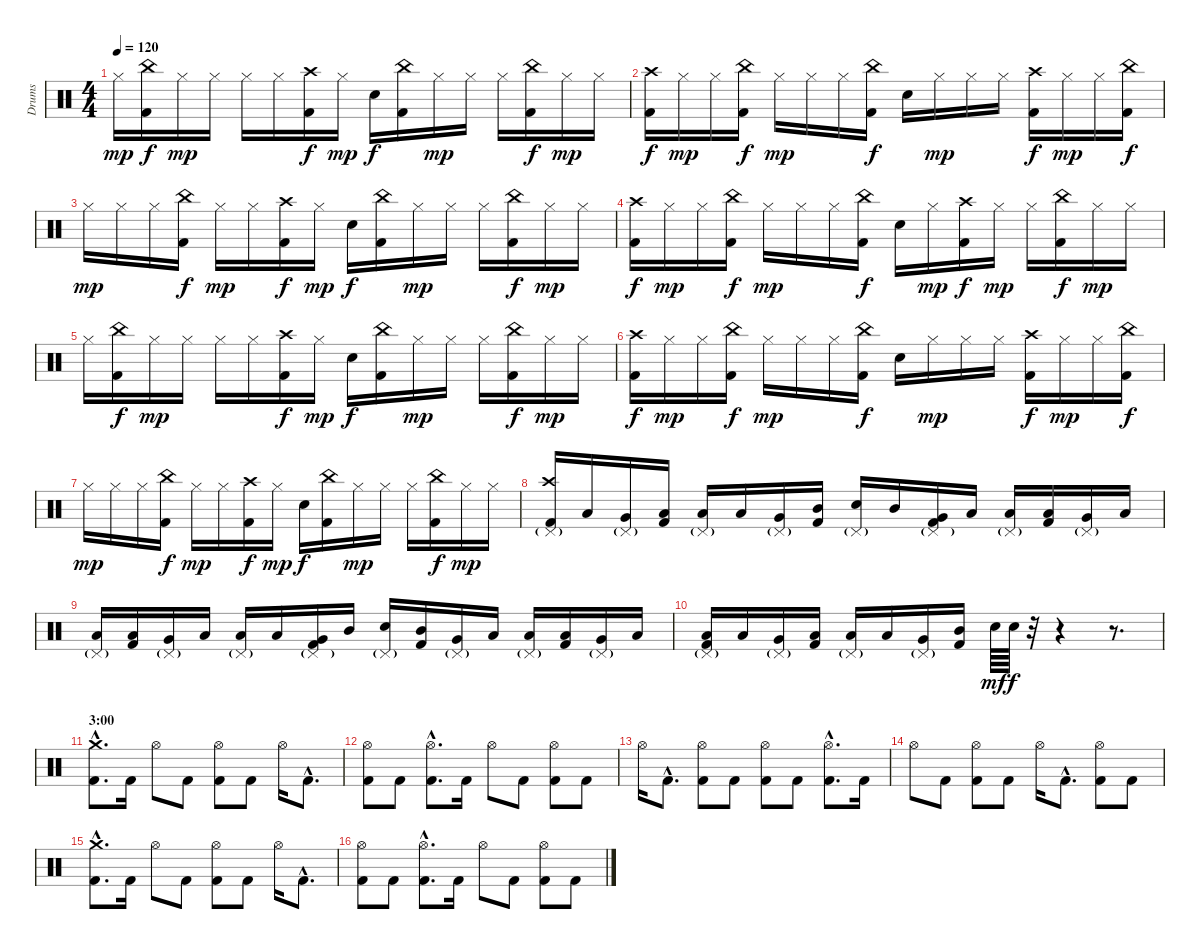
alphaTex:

\track ("Drums" "Drums") {instrument percussion}
\staff {score}
\articulation defaults
\ts (4 4)
\tempo 120
\clef neutral
\ks c "Hi-Hat (closed)".16{dy mp}
("China (hit)" "Kick (hit) 2").16{dy f} "Hi-Hat (closed)".16{dy mp} "Hi-Hat (closed)".16 "Hi-Hat (closed)".16 "Hi-Hat (closed)".16 ("Crash high (hit)" "Kick (hit) 2").16{dy f} "Hi-Hat (closed)".16{dy mp} "Electric Snare (hit)".16{dy f} ("China (hit)" "Kick (hit) 2").16 "Hi-Hat (closed)".16{dy mp} "Hi-Hat (closed)".16 "Hi-Hat (closed)".16 ("China (hit)" "Kick (hit) 2").16{dy f} "Hi-Hat (closed)".16{dy mp} "Hi-Hat (closed)".16 |
("Crash high (hit)" "Kick (hit) 2").16{dy f} "Hi-Hat (closed)".16{dy mp} "Hi-Hat (closed)".16 ("China (hit)" "Kick (hit) 2").16{dy f} "Hi-Hat (closed)".16{dy mp} "Hi-Hat (closed)".16 "Hi-Hat (closed)".16 ("China (hit)" "Kick (hit) 2").16{dy f} "Electric Snare (hit)".16 "Hi-Hat (closed)".16{dy mp} "Hi-Hat (closed)".16 "Hi-Hat (closed)".16 ("Crash high (hit)" "Kick (hit) 2").16{dy f} "Hi-Hat (closed)".16{dy mp} "Hi-Hat (closed)".16 ("China (hit)" "Kick (hit) 2").16{dy f} |
"Hi-Hat (closed)".16{dy mp} "Hi-Hat (closed)".16 "Hi-Hat (closed)".16 ("China (hit)" "Kick (hit) 2").16{dy f} "Hi-Hat (closed)".16{dy mp} "Hi-Hat (closed)".16 ("Crash high (hit)" "Kick (hit) 2").16{dy f} "Hi-Hat (closed)".16{dy mp} "Electric Snare (hit)".16{dy f} ("China (hit)" "Kick (hit) 2").16 "Hi-Hat (closed)".16{dy mp} "Hi-Hat (closed)".16 "Hi-Hat (closed)".16 ("China (hit)" "Kick (hit) 2").16{dy f} "Hi-Hat (closed)".16{dy mp} "Hi-Hat (closed)".16 |
("Crash high (hit)" "Kick (hit) 2").16{dy f} "Hi-Hat (closed)".16{dy mp} "Hi-Hat (closed)".16 ("China (hit)" "Kick (hit) 2").16{dy f} "Hi-Hat (closed)".16{dy mp} "Hi-Hat (closed)".16 "Hi-Hat (closed)".16 ("China (hit)" "Kick (hit) 2").16{dy f} "Electric Snare (hit)".16 "Hi-Hat (closed)".16{dy mp} ("Crash high (hit)" "Kick (hit) 2").16{dy f} "Hi-Hat (closed)".16{dy mp} "Hi-Hat (closed)".16 ("China (hit)" "Kick (hit) 2").16{dy f} "Hi-Hat (closed)".16{dy mp} "Hi-Hat (closed)".16 |
"Hi-Hat (closed)".16 ("China (hit)" "Kick (hit) 2").16{dy f} "Hi-Hat (closed)".16{dy mp} "Hi-Hat (closed)".16 "Hi-Hat (closed)".16 "Hi-Hat (closed)".16 ("Crash high (hit)" "Kick (hit) 2").16{dy f} "Hi-Hat (closed)".16{dy mp} "Electric Snare (hit)".16{dy f} ("China (hit)" "Kick (hit) 2").16 "Hi-Hat (closed)".16{dy mp} "Hi-Hat (closed)".16 "Hi-Hat (closed)".16 ("China (hit)" "Kick (hit) 2").16{dy f} "Hi-Hat (closed)".16{dy mp} "Hi-Hat (closed)".16 |
("Crash high (hit)" "Kick (hit) 2").16{dy f} "Hi-Hat (closed)".16{dy mp} "Hi-Hat (closed)".16 ("China (hit)" "Kick (hit) 2").16{dy f} "Hi-Hat (closed)".16{dy mp} "Hi-Hat (closed)".16 "Hi-Hat (closed)".16 ("China (hit)" "Kick (hit) 2").16{dy f} "Electric Snare (hit)".16 "Hi-Hat (closed)".16{dy mp} "Hi-Hat (closed)".16 "Hi-Hat (closed)".16 ("Crash high (hit)" "Kick (hit) 2").16{dy f} "Hi-Hat (closed)".16{dy mp} "Hi-Hat (closed)".16 ("China (hit)" "Kick (hit) 2").16{dy f} |
"Hi-Hat (closed)".16{dy mp} "Hi-Hat (closed)".16 "Hi-Hat (closed)".16 ("China (hit)" "Kick (hit) 2").16{dy f} "Hi-Hat (closed)".16{dy mp} "Hi-Hat (closed)".16 ("Crash high (hit)" "Kick (hit) 2").16{dy f} "Hi-Hat (closed)".16{dy mp} "Electric Snare (hit)".16{dy f} ("China (hit)" "Kick (hit) 2").16 "Hi-Hat (closed)".16{dy mp} "Hi-Hat (closed)".16 "Hi-Hat (closed)".16 ("China (hit)" "Kick (hit) 2").16{dy f} "Hi-Hat (closed)".16{dy mp} "Hi-Hat (closed)".16 |
("Crash high (hit)" "Pedal Hi-Hat (hit)"{g} "Kick (hit) 2").16 "Low Tom (hit)".16 ("Very Low Tom (hit)" "Pedal Hi-Hat (hit)"{g}).16 ("Low Tom (hit)" "Kick (hit) 2").16 ("Low Floor Tom (hit)" "Pedal Hi-Hat (hit)"{g}).16 "Low Tom (hit)".16 ("Very Low Tom (hit)" "Pedal Hi-Hat (hit)"{g}).16 ("Mid Tom (hit)" "Kick (hit) 2").16 ("Pedal Hi-Hat (hit)"{g} "Electric Snare (hit)").16 "Mid Tom (hit)".16 ("Very Low Tom (hit)" "Pedal Hi-Hat (hit)"{g} "Kick (hit) 2").16 "Low Tom (hit)".16 ("Low Floor Tom (hit)" "Pedal Hi-Hat (hit)"{g}).16 ("Low Tom (hit)" "Kick (hit) 2").16 ("Very Low Tom (hit)" "Pedal Hi-Hat (hit)"{g}).16 "Low Tom (hit)".16 |
("Low Floor Tom (hit)" "Pedal Hi-Hat (hit)"{g}).16 ("Low Tom (hit)" "Kick (hit) 2").16 ("Very Low Tom (hit)" "Pedal Hi-Hat (hit)"{g}).16 "Low Tom (hit)".16 ("Low Floor Tom (hit)" "Pedal Hi-Hat (hit)"{g}).16 "Low Tom (hit)".16 ("Very Low Tom (hit)" "Pedal Hi-Hat (hit)"{g} "Kick (hit) 2").16 "Mid Tom (hit)".16 ("Pedal Hi-Hat (hit)"{g} "Electric Snare (hit)").16 ("Mid Tom (hit)" "Kick (hit) 2").16 ("Very Low Tom (hit)" "Pedal Hi-Hat (hit)"{g}).16 "Low Tom (hit)".16 ("Low Floor Tom (hit)" "Pedal Hi-Hat (hit)"{g}).16 ("Low Tom (hit)" "Kick (hit) 2").16 ("Very Low Tom (hit)" "Pedal Hi-Hat (hit)"{g}).16 "Low Tom (hit)".16 |
("Low Floor Tom (hit)" "Pedal Hi-Hat (hit)"{g} "Kick (hit) 2").16 "Low Tom (hit)".16 ("Very Low Tom (hit)" "Pedal Hi-Hat (hit)"{g}).16 ("Low Tom (hit)" "Kick (hit) 2").16 ("Low Floor Tom (hit)" "Pedal Hi-Hat (hit)"{g}).16 "Low Tom (hit)".16 ("Very Low Tom (hit)" "Pedal Hi-Hat (hit)"{g}).16 ("Mid Tom (hit)" "Kick (hit) 2").16 "Electric Snare (hit)".64{dy mf} "Electric Snare (hit)".64{dy f} r.32 r.4 r.8{d} |
\section ("" "3:00")
("Crash medium (hit)"{hac} "Kick (hit) 2"{hac}).8{d} "Kick (hit) 2".16 "Hi-Hat (open)".8 "Kick (hit) 2".8 ("Hi-Hat (open)" "Kick (hit) 2").8 "Kick (hit) 2".8 "Hi-Hat (open)".16 "Kick (hit) 2"{hac}.8{d} |
("Hi-Hat (open)" "Kick (hit) 2").8 "Kick (hit) 2".8 ("Hi-Hat (open)"{hac} "Kick (hit) 2"{hac}).8{d} "Kick (hit) 2".16 "Hi-Hat (open)".8 "Kick (hit) 2".8 ("Hi-Hat (open)" "Kick (hit) 2").8 "Kick (hit) 2".8 |
"Hi-Hat (open)".16 "Kick (hit) 2"{hac}.8{d} ("Hi-Hat (open)" "Kick (hit) 2").8 "Kick (hit) 2".8 ("Hi-Hat (open)" "Kick (hit) 2").8 "Kick (hit) 2".8 ("Hi-Hat (open)"{hac} "Kick (hit) 2"{hac}).8{d} "Kick (hit) 2".16 |
"Hi-Hat (open)".8 "Kick (hit) 2".8 ("Hi-Hat (open)" "Kick (hit) 2").8 "Kick (hit) 2".8 "Hi-Hat (open)".16 "Kick (hit) 2"{hac}.8{d} ("Hi-Hat (open)" "Kick (hit) 2").8 "Kick (hit) 2".8 |
("Crash medium (hit)"{hac} "Kick (hit) 2"{hac}).8{d} "Kick (hit) 2".16 "Hi-Hat (open)".8 "Kick (hit) 2".8 ("Hi-Hat (open)" "Kick (hit) 2").8 "Kick (hit) 2".8 "Hi-Hat (open)".16 "Kick (hit) 2"{hac}.8{d} |
("Hi-Hat (open)" "Kick (hit) 2").8 "Kick (hit) 2".8 ("Hi-Hat (open)"{hac} "Kick (hit) 2"{hac}).8{d} "Kick (hit) 2".16 "Hi-Hat (open)".8 "Kick (hit) 2".8 ("Hi-Hat (open)" "Kick (hit) 2").8 "Kick (hit) 2".8
